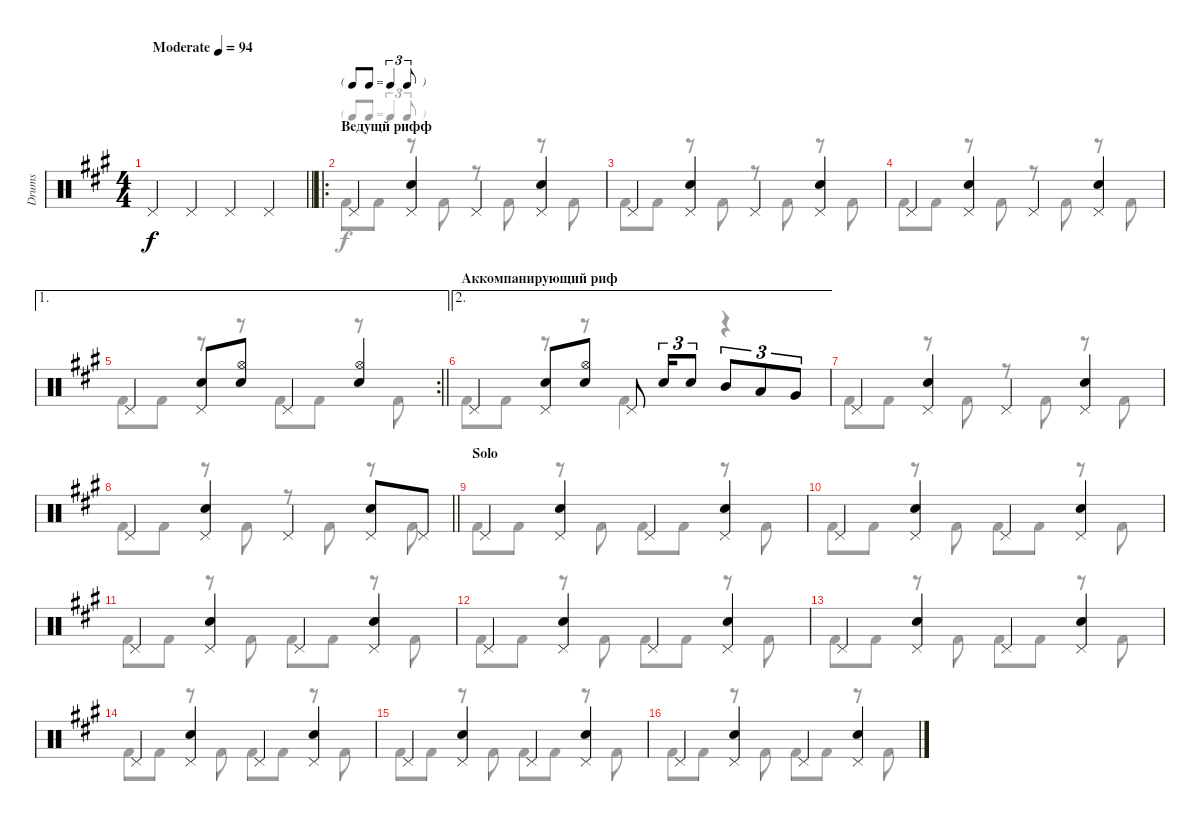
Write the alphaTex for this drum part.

\track ("Drums" "Drums") {instrument percussion}
\staff {score}
\articulation defaults
\voice
\ts (4 4)
\tempo (94 "Moderate")
\clef neutral
\barLineRight lightlight
\ks f#minor "Pedal Hi-Hat (hit)".4{dy f} "Pedal Hi-Hat (hit)".4 "Pedal Hi-Hat (hit)".4 "Pedal Hi-Hat (hit)".4
|
\ro
\tf triplet8th
\section ("" "Ведущй рифф")
"Pedal Hi-Hat (hit)".4 ("Pedal Hi-Hat (hit)" "Snare (hit) 2").4 "Pedal Hi-Hat (hit)".4 ("Pedal Hi-Hat (hit)" "Snare (hit) 2").4 |
"Pedal Hi-Hat (hit)".4 ("Pedal Hi-Hat (hit)" "Snare (hit) 2").4 "Pedal Hi-Hat (hit)".4 ("Pedal Hi-Hat (hit)" "Snare (hit) 2").4 |
"Pedal Hi-Hat (hit)".4 ("Pedal Hi-Hat (hit)" "Snare (hit) 2").4 "Pedal Hi-Hat (hit)".4 ("Pedal Hi-Hat (hit)" "Snare (hit) 2").4 |
\ae 1
\rc 2
\barLineRight lightlight "Pedal Hi-Hat (hit)".4
("Pedal Hi-Hat (hit)" "Snare (hit) 2").8 ("Hi-Hat (open)" "Snare (hit) 2").8 "Pedal Hi-Hat (hit)".4 ("Hi-Hat (open)" "Snare (hit) 2").4 |
\ae 2
\section ("" "Аккомпанирующий риф")
"Pedal Hi-Hat (hit)".4 ("Pedal Hi-Hat (hit)" "Snare (hit) 2").8 ("Hi-Hat (open)" "Snare (hit) 2").8 "Pedal Hi-Hat (hit)".8 "Snare (hit) 2".16{tu (3 2)} "Snare (hit) 2".8{tu (3 2)} "Mid Tom (hit)".8{tu (3 2)} "Low Tom (hit)".8{tu (3 2)} "Very Low Tom (hit)".8{tu (3 2)} |
"Pedal Hi-Hat (hit)".4 ("Pedal Hi-Hat (hit)" "Snare (hit) 2").4 "Pedal Hi-Hat (hit)".4 ("Pedal Hi-Hat (hit)" "Snare (hit) 2").4 |
\barLineRight lightlight "Pedal Hi-Hat (hit)".4
("Pedal Hi-Hat (hit)" "Snare (hit) 2").4 "Pedal Hi-Hat (hit)".4 ("Pedal Hi-Hat (hit)" "Snare (hit) 2").8 "Pedal Hi-Hat (hit)".8 |
\section ("" "Solo")
"Pedal Hi-Hat (hit)".4 ("Pedal Hi-Hat (hit)" "Snare (hit) 2").4 "Pedal Hi-Hat (hit)".4 ("Pedal Hi-Hat (hit)" "Snare (hit) 2").4 |
"Pedal Hi-Hat (hit)".4 ("Pedal Hi-Hat (hit)" "Snare (hit) 2").4 "Pedal Hi-Hat (hit)".4 ("Pedal Hi-Hat (hit)" "Snare (hit) 2").4 |
"Pedal Hi-Hat (hit)".4 ("Pedal Hi-Hat (hit)" "Snare (hit) 2").4 "Pedal Hi-Hat (hit)".4 ("Pedal Hi-Hat (hit)" "Snare (hit) 2").4 |
"Pedal Hi-Hat (hit)".4 ("Pedal Hi-Hat (hit)" "Snare (hit) 2").4 "Pedal Hi-Hat (hit)".4 ("Pedal Hi-Hat (hit)" "Snare (hit) 2").4 |
"Pedal Hi-Hat (hit)".4 ("Pedal Hi-Hat (hit)" "Snare (hit) 2").4 "Pedal Hi-Hat (hit)".4 ("Pedal Hi-Hat (hit)" "Snare (hit) 2").4 |
"Pedal Hi-Hat (hit)".4 ("Pedal Hi-Hat (hit)" "Snare (hit) 2").4 "Pedal Hi-Hat (hit)".4 ("Pedal Hi-Hat (hit)" "Snare (hit) 2").4 |
"Pedal Hi-Hat (hit)".4 ("Pedal Hi-Hat (hit)" "Snare (hit) 2").4 "Pedal Hi-Hat (hit)".4 ("Pedal Hi-Hat (hit)" "Snare (hit) 2").4 |
"Pedal Hi-Hat (hit)".4 ("Pedal Hi-Hat (hit)" "Snare (hit) 2").4 "Pedal Hi-Hat (hit)".4 ("Pedal Hi-Hat (hit)" "Snare (hit) 2").4
\voice
\clef neutral
\ottava regular
\simile none
\barLineRight lightlight
\ks f#minor
|
"Kick (hit) 2".8 "Kick (hit) 2".8 r.8 "Kick (hit) 2".8 r.8 "Kick (hit) 2".8 r.8 "Kick (hit) 2".8 |
"Kick (hit) 2".8 "Kick (hit) 2".8 r.8 "Kick (hit) 2".8 r.8 "Kick (hit) 2".8 r.8 "Kick (hit) 2".8 |
"Kick (hit) 2".8 "Kick (hit) 2".8 r.8 "Kick (hit) 2".8 r.8 "Kick (hit) 2".8 r.8 "Kick (hit) 2".8 |
\barLineRight lightlight "Kick (hit) 2".8 "Kick (hit) 2".8
r.8 r.8 "Kick (hit) 2".8 "Kick (hit) 2".8 r.8 "Kick (hit) 2".8 |
"Kick (hit) 2".8 "Kick (hit) 2".8 r.8 r.8 "Kick (hit) 2".4 r.4 |
"Kick (hit) 2".8 "Kick (hit) 2".8 r.8 "Kick (hit) 2".8 r.8 "Kick (hit) 2".8 r.8 "Kick (hit) 2".8 |
\barLineRight lightlight "Kick (hit) 2".8 "Kick (hit) 2".8
r.8 "Kick (hit) 2".8 r.8 "Kick (hit) 2".8 r.8 "Kick (hit) 2".8 |
"Kick (hit) 2".8 "Kick (hit) 2".8 r.8 "Kick (hit) 2".8 "Kick (hit) 2".8 "Kick (hit) 2".8 r.8 "Kick (hit) 2".8 |
"Kick (hit) 2".8 "Kick (hit) 2".8 r.8 "Kick (hit) 2".8 "Kick (hit) 2".8 "Kick (hit) 2".8 r.8 "Kick (hit) 2".8 |
"Kick (hit) 2".8 "Kick (hit) 2".8 r.8 "Kick (hit) 2".8 "Kick (hit) 2".8 "Kick (hit) 2".8 r.8 "Kick (hit) 2".8 |
"Kick (hit) 2".8 "Kick (hit) 2".8 r.8 "Kick (hit) 2".8 "Kick (hit) 2".8 "Kick (hit) 2".8 r.8 "Kick (hit) 2".8 |
"Kick (hit) 2".8 "Kick (hit) 2".8 r.8 "Kick (hit) 2".8 "Kick (hit) 2".8 "Kick (hit) 2".8 r.8 "Kick (hit) 2".8 |
"Kick (hit) 2".8 "Kick (hit) 2".8 r.8 "Kick (hit) 2".8 "Kick (hit) 2".8 "Kick (hit) 2".8 r.8 "Kick (hit) 2".8 |
"Kick (hit) 2".8 "Kick (hit) 2".8 r.8 "Kick (hit) 2".8 "Kick (hit) 2".8 "Kick (hit) 2".8 r.8 "Kick (hit) 2".8 |
"Kick (hit) 2".8 "Kick (hit) 2".8 r.8 "Kick (hit) 2".8 "Kick (hit) 2".8 "Kick (hit) 2".8 r.8 "Kick (hit) 2".8
